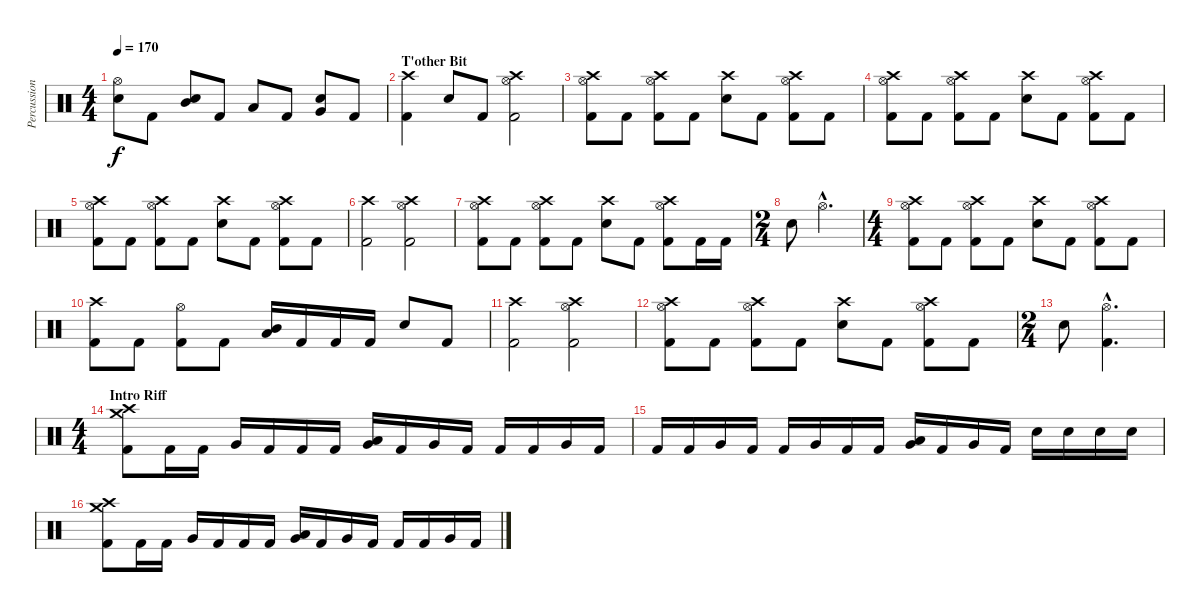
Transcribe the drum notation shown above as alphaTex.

\track ("Percussion" "Percussion") {instrument percussion}
\staff {score}
\articulation defaults
\ts (4 4)
\tempo 170
\clef neutral
\ks c
("Hi-Hat (open)" "Electric Snare (hit)").8{dy f} "Kick (hit) 2".8 ("Mid Tom (hit)" "Electric Snare (hit)").8 "Kick (hit) 2".8 "Low Tom (hit)".8 "Kick (hit) 2".8 ("Electric Snare (hit)" "Very Low Tom (hit)").8 "Kick (hit) 2".8 |
\section ("" "T'other Bit")
("Crash high (hit)" "Kick (hit) 2").4 "Electric Snare (hit)".8 "Kick (hit) 2".8 ("Crash high (hit)" "Hi-Hat (open)" "Kick (hit) 2").2 |
("Crash high (hit)" "Hi-Hat (open)" "Kick (hit) 2").8 "Kick (hit) 2".8 ("Crash high (hit)" "Hi-Hat (open)" "Kick (hit) 2").8 "Kick (hit) 2".8 ("Crash high (hit)" "Electric Snare (hit)").8 "Kick (hit) 2".8 ("Crash high (hit)" "Hi-Hat (open)" "Kick (hit) 2").8 "Kick (hit) 2".8 |
("Crash high (hit)" "Hi-Hat (open)" "Kick (hit) 2").8 "Kick (hit) 2".8 ("Crash high (hit)" "Hi-Hat (open)" "Kick (hit) 2").8 "Kick (hit) 2".8 ("Crash high (hit)" "Electric Snare (hit)").8 "Kick (hit) 2".8 ("Crash high (hit)" "Hi-Hat (open)" "Kick (hit) 2").8 "Kick (hit) 2".8 |
("Crash high (hit)" "Hi-Hat (open)" "Kick (hit) 2").8 "Kick (hit) 2".8 ("Crash high (hit)" "Hi-Hat (open)" "Kick (hit) 2").8 "Kick (hit) 2".8 ("Crash high (hit)" "Electric Snare (hit)").8 "Kick (hit) 2".8 ("Crash high (hit)" "Hi-Hat (open)" "Kick (hit) 2").8 "Kick (hit) 2".8 |
("Crash high (hit)" "Kick (hit) 2").2 ("Crash high (hit)" "Hi-Hat (open)" "Kick (hit) 2").2 |
("Crash high (hit)" "Hi-Hat (open)" "Kick (hit) 2").8 "Kick (hit) 2".8 ("Crash high (hit)" "Hi-Hat (open)" "Kick (hit) 2").8 "Kick (hit) 2".8 ("Crash high (hit)" "Electric Snare (hit)").8 "Kick (hit) 2".8 ("Crash high (hit)" "Hi-Hat (open)" "Kick (hit) 2").8 "Kick (hit) 2".16 "Kick (hit) 2".16 |
\ts (2 4)
"Electric Snare (hit)".8 "Hi-Hat (open)"{hac}.4{d} |
\ts (4 4)
("Crash high (hit)" "Hi-Hat (open)" "Kick (hit) 2").8 "Kick (hit) 2".8 ("Crash high (hit)" "Hi-Hat (open)" "Kick (hit) 2").8 "Kick (hit) 2".8 ("Crash high (hit)" "Electric Snare (hit)").8 "Kick (hit) 2".8 ("Crash high (hit)" "Hi-Hat (open)" "Kick (hit) 2").8 "Kick (hit) 2".8 |
("Crash high (hit)" "Kick (hit) 2").8 "Kick (hit) 2".8 ("Hi-Hat (open)" "Kick (hit) 2").8 "Kick (hit) 2".8 ("Mid Tom (hit)" "Low Tom (hit)").16 "Kick (hit) 2".16 "Kick (hit) 2".16 "Kick (hit) 2".16 "Electric Snare (hit)".8 "Kick (hit) 2".8 |
("Crash high (hit)" "Kick (hit) 2").2 ("Crash high (hit)" "Hi-Hat (open)" "Kick (hit) 2").2 |
("Crash high (hit)" "Hi-Hat (open)" "Kick (hit) 2").8 "Kick (hit) 2".8 ("Crash high (hit)" "Hi-Hat (open)" "Kick (hit) 2").8 "Kick (hit) 2".8 ("Crash high (hit)" "Electric Snare (hit)").8 "Kick (hit) 2".8 ("Crash high (hit)" "Hi-Hat (open)" "Kick (hit) 2").8 "Kick (hit) 2".8 |
\ts (2 4)
"Electric Snare (hit)".8 ("Hi-Hat (open)"{hac} "Kick (hit) 2"{hac}).4{d} |
\ts (4 4)
\section ("" "Intro Riff")
("Crash high (hit)" "Crash medium (hit)" "Kick (hit) 2").8 "Kick (hit) 2".16 "Kick (hit) 2".16 "Very Low Tom (hit)".16 "Kick (hit) 2".16 "Kick (hit) 2".16 "Kick (hit) 2".16 ("Low Tom (hit)" "Very Low Tom (hit)").16 "Kick (hit) 2".16 "Very Low Tom (hit)".16 "Kick (hit) 2".16 "Kick (hit) 2".16 "Kick (hit) 2".16 "Very Low Tom (hit)".16 "Kick (hit) 2".16 |
"Kick (hit) 2".16 "Kick (hit) 2".16 "Very Low Tom (hit)".16 "Kick (hit) 2".16 "Kick (hit) 2".16 "Very Low Tom (hit)".16 "Kick (hit) 2".16 "Kick (hit) 2".16 ("Low Tom (hit)" "Very Low Tom (hit)").16 "Kick (hit) 2".16 "Very Low Tom (hit)".16 "Kick (hit) 2".16 "Electric Snare (hit)".16 "Electric Snare (hit)".16 "Electric Snare (hit)".16 "Electric Snare (hit)".16 |
("Crash high (hit)" "Crash medium (hit)" "Kick (hit) 2").8 "Kick (hit) 2".16 "Kick (hit) 2".16 "Very Low Tom (hit)".16 "Kick (hit) 2".16 "Kick (hit) 2".16 "Kick (hit) 2".16 ("Low Tom (hit)" "Very Low Tom (hit)").16 "Kick (hit) 2".16 "Very Low Tom (hit)".16 "Kick (hit) 2".16 "Kick (hit) 2".16 "Kick (hit) 2".16 "Very Low Tom (hit)".16 "Kick (hit) 2".16
